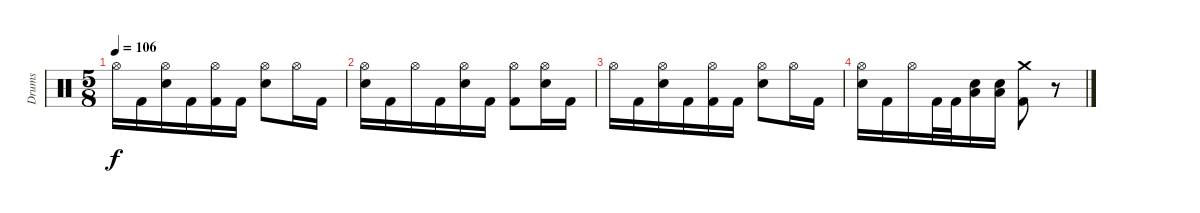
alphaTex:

\track ("Drums" "Drums") {instrument percussion}
\staff {score}
\articulation defaults
\ts (5 8)
\tempo 106
\clef neutral
\ks c "Hi-Hat (open)".16{dy f} "Kick (hit) 2".16
("Electric Snare (hit)" "Hi-Hat (open)").16 "Kick (hit) 2".16 ("Kick (hit) 2" "Hi-Hat (open)").16 "Kick (hit) 2".16 ("Electric Snare (hit)" "Hi-Hat (open)").8 "Hi-Hat (open)".16 "Kick (hit) 2".16 |
("Electric Snare (hit)" "Hi-Hat (open)").16 "Kick (hit) 2".16 "Hi-Hat (open)".16 "Kick (hit) 2".16 ("Electric Snare (hit)" "Hi-Hat (open)").16 "Kick (hit) 2".16 ("Kick (hit) 2" "Hi-Hat (open)").8 ("Electric Snare (hit)" "Hi-Hat (open)").16 "Kick (hit) 2".16 |
"Hi-Hat (open)".16 "Kick (hit) 2".16 ("Electric Snare (hit)" "Hi-Hat (open)").16 "Kick (hit) 2".16 ("Kick (hit) 2" "Hi-Hat (open)").16 "Kick (hit) 2".16 ("Electric Snare (hit)" "Hi-Hat (open)").8 "Hi-Hat (open)".16 "Kick (hit) 2".16 |
("Electric Snare (hit)" "Hi-Hat (open)").16 "Kick (hit) 2".16 "Hi-Hat (open)".16 "Kick (hit) 2".32 "Kick (hit) 2".32 ("Low Tom (hit)" "Electric Snare (hit)").16 ("Low Tom (hit)" "Electric Snare (hit)").16 ("Crash medium (hit)" "Kick (hit) 2").8 r.8
